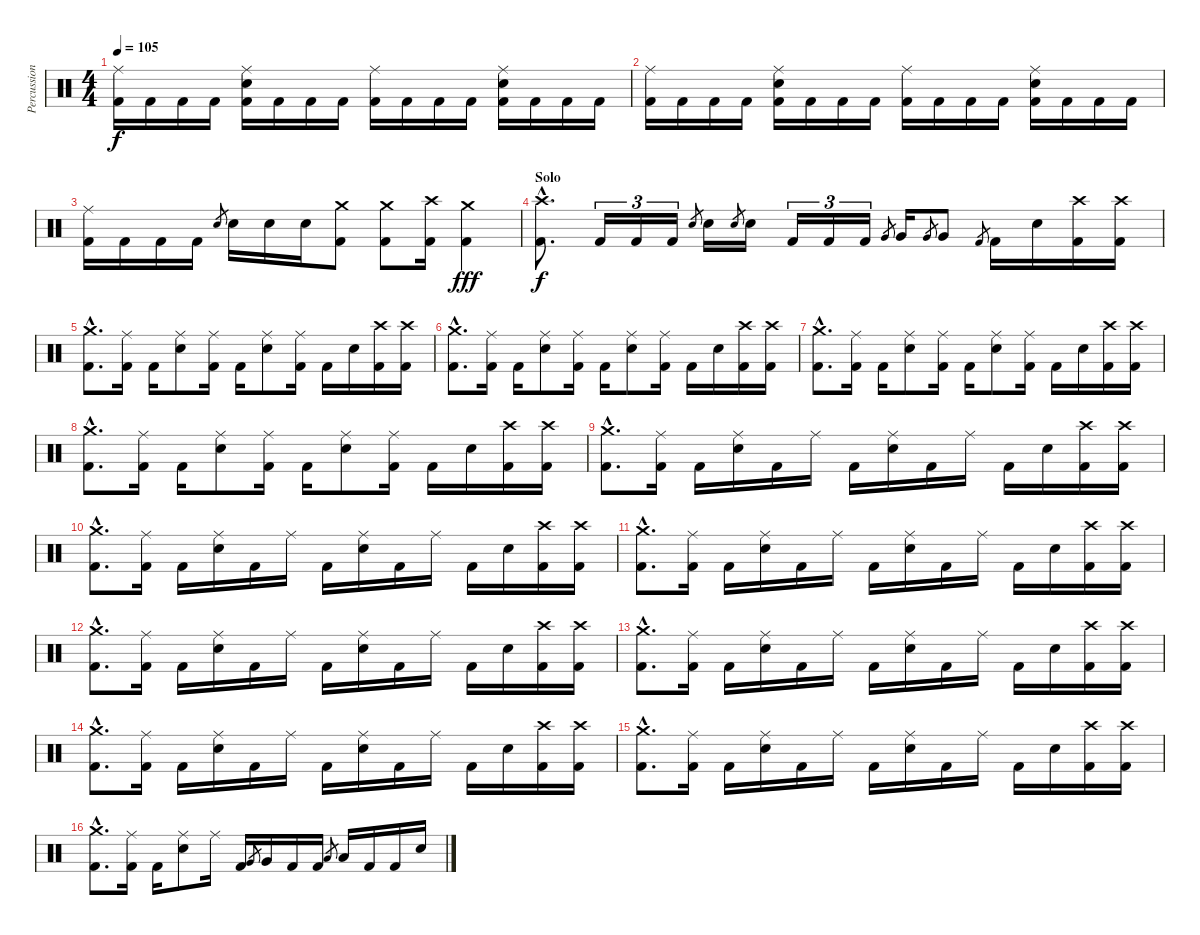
\track ("Percussion" "Percussion") {instrument percussion}
\staff {score}
\articulation defaults
\ts (4 4)
\tempo 105
\clef neutral
\ks c
("Ride (middle)" "Kick (hit) 2").16{dy f} "Kick (hit) 2".16 "Kick (hit) 2".16 "Kick (hit) 2".16 ("Ride (middle)" "Snare (hit) 2" "Kick (hit) 2").16 "Kick (hit) 2".16 "Kick (hit) 2".16 "Kick (hit) 2".16 ("Ride (middle)" "Kick (hit) 2").16 "Kick (hit) 2".16 "Kick (hit) 2".16 "Kick (hit) 2".16 ("Ride (middle)" "Snare (hit) 2" "Kick (hit) 2").16 "Kick (hit) 2".16 "Kick (hit) 2".16 "Kick (hit) 2".16 |
("Ride (middle)" "Kick (hit) 2").16 "Kick (hit) 2".16 "Kick (hit) 2".16 "Kick (hit) 2".16 ("Ride (middle)" "Snare (hit) 2" "Kick (hit) 2").16 "Kick (hit) 2".16 "Kick (hit) 2".16 "Kick (hit) 2".16 ("Ride (middle)" "Kick (hit) 2").16 "Kick (hit) 2".16 "Kick (hit) 2".16 "Kick (hit) 2".16 ("Ride (middle)" "Snare (hit) 2" "Kick (hit) 2").16 "Kick (hit) 2".16 "Kick (hit) 2".16 "Kick (hit) 2".16 |
("Ride (middle)" "Kick (hit) 2").16 "Kick (hit) 2".16 "Kick (hit) 2".16 "Kick (hit) 2".16 "Snare (hit) 2".8{gr} "Snare (hit) 2".16 "Snare (hit) 2".16 "Snare (hit) 2".16 ("Crash medium (hit)" "Kick (hit) 2").8 ("Crash medium (hit)" "Kick (hit) 2").8 ("Crash high (hit)" "Kick (hit) 2").16 ("Crash medium (hit)" "Kick (hit) 2").4{dy fff} |
\section ("" "Solo")
("Crash high (hit)"{hac} "Kick (hit) 2"{hac}).8{d dy f} "Kick (hit) 2".16{tu (3 2)} "Kick (hit) 2".16{tu (3 2)} "Kick (hit) 2".16{tu (3 2)} "Snare (hit) 2".8{gr} "Snare (hit) 2".16 "Snare (hit) 2".8{gr} "Snare (hit) 2".16 "Kick (hit) 2".16{tu (3 2)} "Kick (hit) 2".16{tu (3 2)} "Kick (hit) 2".16{tu (3 2)} "Very Low Tom (hit)".8{gr} "Very Low Tom (hit)".16 "Very Low Tom (hit)".8{gr} "Very Low Tom (hit)".8 "Kick (hit) 2".8{gr} "Kick (hit) 2".16 "Snare (hit) 2".16 ("Crash high (hit)" "Kick (hit) 2").16 ("Crash high (hit)" "Kick (hit) 2").16 |
("Crash medium (hit)"{hac} "Kick (hit) 2"{hac}).8{d} ("Ride (middle)" "Kick (hit) 2").16 "Kick (hit) 2".16 ("Ride (middle)" "Snare (hit) 2").8 ("Ride (middle)" "Kick (hit) 2").16 "Kick (hit) 2".16 ("Ride (middle)" "Snare (hit) 2").8 ("Ride (middle)" "Kick (hit) 2").16 "Kick (hit) 2".16 "Snare (hit) 2".16 ("Crash high (hit)" "Kick (hit) 2").16 ("Crash high (hit)" "Kick (hit) 2").16 |
("Crash medium (hit)"{hac} "Kick (hit) 2"{hac}).8{d} ("Ride (middle)" "Kick (hit) 2").16 "Kick (hit) 2".16 ("Ride (middle)" "Snare (hit) 2").8 ("Ride (middle)" "Kick (hit) 2").16 "Kick (hit) 2".16 ("Ride (middle)" "Snare (hit) 2").8 ("Ride (middle)" "Kick (hit) 2").16 "Kick (hit) 2".16 "Snare (hit) 2".16 ("Crash high (hit)" "Kick (hit) 2").16 ("Crash high (hit)" "Kick (hit) 2").16 |
("Crash medium (hit)"{hac} "Kick (hit) 2"{hac}).8{d} ("Ride (middle)" "Kick (hit) 2").16 "Kick (hit) 2".16 ("Ride (middle)" "Snare (hit) 2").8 ("Ride (middle)" "Kick (hit) 2").16 "Kick (hit) 2".16 ("Ride (middle)" "Snare (hit) 2").8 ("Ride (middle)" "Kick (hit) 2").16 "Kick (hit) 2".16 "Snare (hit) 2".16 ("Crash high (hit)" "Kick (hit) 2").16 ("Crash high (hit)" "Kick (hit) 2").16 |
("Crash medium (hit)"{hac} "Kick (hit) 2"{hac}).8{d} ("Ride (middle)" "Kick (hit) 2").16 "Kick (hit) 2".16 ("Ride (middle)" "Snare (hit) 2").8 ("Ride (middle)" "Kick (hit) 2").16 "Kick (hit) 2".16 ("Ride (middle)" "Snare (hit) 2").8 ("Ride (middle)" "Kick (hit) 2").16 "Kick (hit) 2".16 "Snare (hit) 2".16 ("Crash high (hit)" "Kick (hit) 2").16 ("Crash high (hit)" "Kick (hit) 2").16 |
("Crash medium (hit)"{hac} "Kick (hit) 2"{hac}).8{d} ("Ride (middle)" "Kick (hit) 2").16 "Kick (hit) 2".16 ("Ride (middle)" "Snare (hit) 2").16 "Kick (hit) 2".16 "Ride (middle)".16 "Kick (hit) 2".16 ("Ride (middle)" "Snare (hit) 2").16 "Kick (hit) 2".16 "Ride (middle)".16 "Kick (hit) 2".16 "Snare (hit) 2".16 ("Crash high (hit)" "Kick (hit) 2").16 ("Crash high (hit)" "Kick (hit) 2").16 |
("Crash medium (hit)"{hac} "Kick (hit) 2"{hac}).8{d} ("Ride (middle)" "Kick (hit) 2").16 "Kick (hit) 2".16 ("Ride (middle)" "Snare (hit) 2").16 "Kick (hit) 2".16 "Ride (middle)".16 "Kick (hit) 2".16 ("Ride (middle)" "Snare (hit) 2").16 "Kick (hit) 2".16 "Ride (middle)".16 "Kick (hit) 2".16 "Snare (hit) 2".16 ("Crash high (hit)" "Kick (hit) 2").16 ("Crash high (hit)" "Kick (hit) 2").16 |
("Crash medium (hit)"{hac} "Kick (hit) 2"{hac}).8{d} ("Ride (middle)" "Kick (hit) 2").16 "Kick (hit) 2".16 ("Ride (middle)" "Snare (hit) 2").16 "Kick (hit) 2".16 "Ride (middle)".16 "Kick (hit) 2".16 ("Ride (middle)" "Snare (hit) 2").16 "Kick (hit) 2".16 "Ride (middle)".16 "Kick (hit) 2".16 "Snare (hit) 2".16 ("Crash high (hit)" "Kick (hit) 2").16 ("Crash high (hit)" "Kick (hit) 2").16 |
("Crash medium (hit)"{hac} "Kick (hit) 2"{hac}).8{d} ("Ride (middle)" "Kick (hit) 2").16 "Kick (hit) 2".16 ("Ride (middle)" "Snare (hit) 2").16 "Kick (hit) 2".16 "Ride (middle)".16 "Kick (hit) 2".16 ("Ride (middle)" "Snare (hit) 2").16 "Kick (hit) 2".16 "Ride (middle)".16 "Kick (hit) 2".16 "Snare (hit) 2".16 ("Crash high (hit)" "Kick (hit) 2").16 ("Crash high (hit)" "Kick (hit) 2").16 |
("Crash medium (hit)"{hac} "Kick (hit) 2"{hac}).8{d} ("Ride (middle)" "Kick (hit) 2").16 "Kick (hit) 2".16 ("Ride (middle)" "Snare (hit) 2").16 "Kick (hit) 2".16 "Ride (middle)".16 "Kick (hit) 2".16 ("Ride (middle)" "Snare (hit) 2").16 "Kick (hit) 2".16 "Ride (middle)".16 "Kick (hit) 2".16 "Snare (hit) 2".16 ("Crash high (hit)" "Kick (hit) 2").16 ("Crash high (hit)" "Kick (hit) 2").16 |
("Crash medium (hit)"{hac} "Kick (hit) 2"{hac}).8{d} ("Ride (middle)" "Kick (hit) 2").16 "Kick (hit) 2".16 ("Ride (middle)" "Snare (hit) 2").16 "Kick (hit) 2".16 "Ride (middle)".16 "Kick (hit) 2".16 ("Ride (middle)" "Snare (hit) 2").16 "Kick (hit) 2".16 "Ride (middle)".16 "Kick (hit) 2".16 "Snare (hit) 2".16 ("Crash high (hit)" "Kick (hit) 2").16 ("Crash high (hit)" "Kick (hit) 2").16 |
("Crash medium (hit)"{hac} "Kick (hit) 2"{hac}).8{d} ("Ride (middle)" "Kick (hit) 2").16 "Kick (hit) 2".16 ("Ride (middle)" "Snare (hit) 2").16 "Kick (hit) 2".16 "Ride (middle)".16 "Kick (hit) 2".16 ("Ride (middle)" "Snare (hit) 2").16 "Kick (hit) 2".16 "Ride (middle)".16 "Kick (hit) 2".16 "Snare (hit) 2".16 ("Crash high (hit)" "Kick (hit) 2").16 ("Crash high (hit)" "Kick (hit) 2").16 |
("Crash medium (hit)"{hac} "Kick (hit) 2"{hac}).8{d} ("Ride (middle)" "Kick (hit) 2").16 "Kick (hit) 2".16 ("Ride (middle)" "Snare (hit) 2").8 "Ride (middle)".16 "Kick (hit) 2".16 "Very Low Tom (hit)".8{gr} "Very Low Tom (hit)".16 "Kick (hit) 2".16 "Kick (hit) 2".16 "Low Floor Tom (hit)".8{gr} "Low Floor Tom (hit)".16 "Kick (hit) 2".16 "Kick (hit) 2".16 "Snare (hit) 2".16
